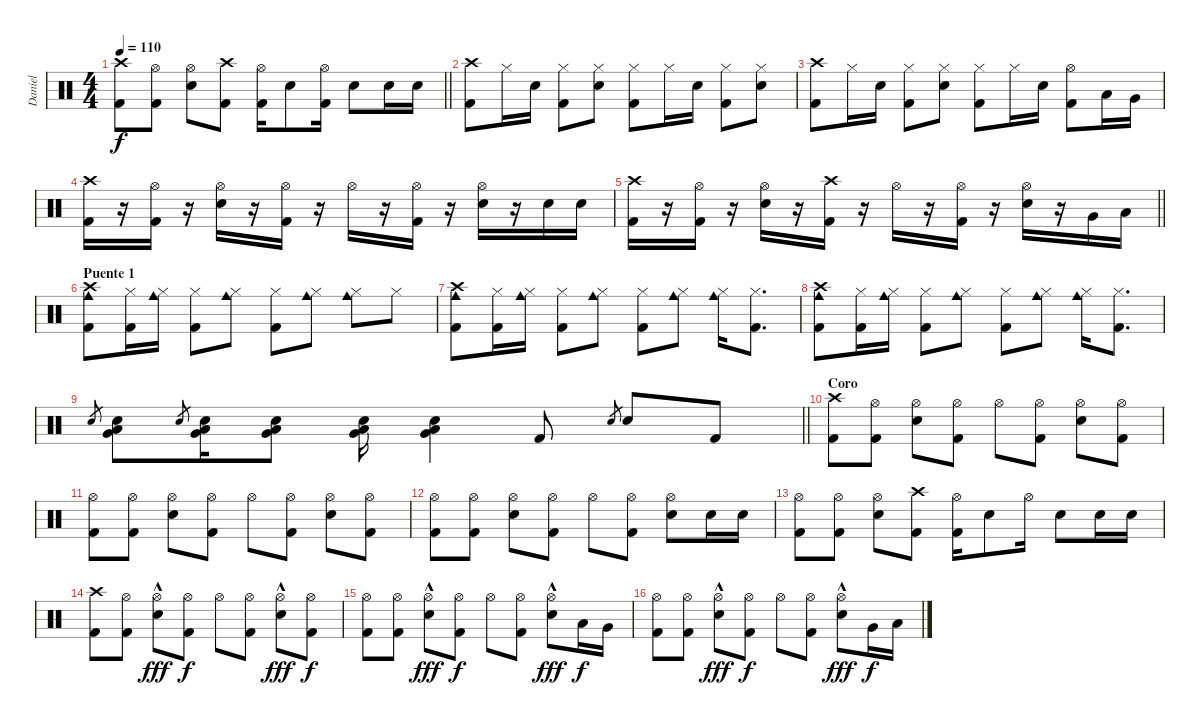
\track ("Daniel" "Daniel") {instrument percussion}
\staff {score}
\articulation defaults
\ts (4 4)
\tempo 110
\clef neutral
\barLineRight lightlight
\ks c
("Crash high (hit)" "Kick (hit) 2").8{dy f} ("Hi-Hat (open)" "Kick (hit) 2").8 ("Hi-Hat (open)" "Snare (hit) 2").8 ("Crash high (hit)" "Kick (hit) 2").8 ("Hi-Hat (open)" "Kick (hit) 2").16 "Snare (hit) 2".8 ("Hi-Hat (open)" "Kick (hit) 2").16 "Snare (hit) 2".8 "Snare (hit) 2".16 "Snare (hit) 2".16 |
("Crash high (hit)" "Kick (hit) 2").8 "Hi-Hat (closed)".16 "Snare (hit) 2".16 ("Hi-Hat (closed)" "Kick (hit) 2").8 ("Hi-Hat (closed)" "Snare (hit) 2").8 ("Hi-Hat (closed)" "Kick (hit) 2").8 "Hi-Hat (closed)".16 "Snare (hit) 2".16 ("Hi-Hat (closed)" "Kick (hit) 2").8 ("Hi-Hat (closed)" "Snare (hit) 2").8 |
("Crash high (hit)" "Kick (hit) 2").8 "Hi-Hat (closed)".16 "Snare (hit) 2".16 ("Hi-Hat (closed)" "Kick (hit) 2").8 ("Hi-Hat (closed)" "Snare (hit) 2").8 ("Hi-Hat (closed)" "Kick (hit) 2").8 "Hi-Hat (closed)".16 "Snare (hit) 2".16 ("Hi-Hat (open)" "Kick (hit) 2").8 "Low Tom (hit)".16 "Very Low Tom (hit)".16 |
("Crash high (hit)" "Kick (hit) 2").16 r.16 ("Hi-Hat (open)" "Kick (hit) 2").16 r.16 ("Hi-Hat (open)" "Snare (hit) 2").16 r.16 ("Hi-Hat (open)" "Kick (hit) 2").16 r.16 "Hi-Hat (open)".16 r.16 ("Hi-Hat (open)" "Kick (hit) 2").16 r.16 ("Hi-Hat (open)" "Snare (hit) 2").16 r.16 "Snare (hit) 2".16 "Snare (hit) 2".16 |
\barLineRight lightlight
("Crash high (hit)" "Kick (hit) 2").16 r.16 ("Hi-Hat (open)" "Kick (hit) 2").16 r.16 ("Hi-Hat (open)" "Snare (hit) 2").16 r.16 ("Crash high (hit)" "Kick (hit) 2").16 r.16 "Hi-Hat (open)".16 r.16 ("Hi-Hat (open)" "Kick (hit) 2").16 r.16 ("Hi-Hat (open)" "Snare (hit) 2").16 r.16 "Very Low Tom (hit)".16 "Low Floor Tom (hit)".16 |
\section ("" "Puente 1")
("Crash high (hit)" "Cowbell medium (hit)" "Kick (hit) 2").8 ("Hi-Hat (closed)" "Kick (hit) 2").16 ("Hi-Hat (closed)" "Cowbell medium (hit)").16 ("Hi-Hat (closed)" "Kick (hit) 2").8 ("Hi-Hat (closed)" "Cowbell medium (hit)").8 ("Hi-Hat (closed)" "Kick (hit) 2").8 ("Hi-Hat (closed)" "Cowbell medium (hit)").8 ("Hi-Hat (closed)" "Cowbell medium (hit)").8 "Hi-Hat (closed)".8 |
("Crash high (hit)" "Cowbell medium (hit)" "Kick (hit) 2").8 ("Hi-Hat (closed)" "Kick (hit) 2").16 ("Hi-Hat (closed)" "Cowbell medium (hit)").16 ("Hi-Hat (closed)" "Kick (hit) 2").8 ("Hi-Hat (closed)" "Cowbell medium (hit)").8 ("Hi-Hat (closed)" "Kick (hit) 2").8 ("Hi-Hat (closed)" "Cowbell medium (hit)").8 ("Hi-Hat (closed)" "Cowbell medium (hit)").16 ("Hi-Hat (closed)" "Kick (hit) 2").8{d} |
("Crash high (hit)" "Cowbell medium (hit)" "Kick (hit) 2").8 ("Hi-Hat (closed)" "Kick (hit) 2").16 ("Hi-Hat (closed)" "Cowbell medium (hit)").16 ("Hi-Hat (closed)" "Kick (hit) 2").8 ("Hi-Hat (closed)" "Cowbell medium (hit)").8 ("Hi-Hat (closed)" "Kick (hit) 2").8 ("Hi-Hat (closed)" "Cowbell medium (hit)").8 ("Hi-Hat (closed)" "Cowbell medium (hit)").16 ("Hi-Hat (closed)" "Kick (hit) 2").8{d} |
\barLineRight lightlight "Snare (hit) 2".8{gr}
("Snare (hit) 2" "Low Floor Tom (hit)" "Very Low Tom (hit)").8 "Snare (hit) 2".8{gr} ("Snare (hit) 2" "Low Floor Tom (hit)" "Very Low Tom (hit)").16 ("Snare (hit) 2" "Low Floor Tom (hit)" "Very Low Tom (hit)").8 ("Snare (hit) 2" "Low Floor Tom (hit)" "Very Low Tom (hit)").16 ("Snare (hit) 2" "Low Floor Tom (hit)" "Very Low Tom (hit)").4 "Kick (hit) 2".8 "Snare (hit) 2".8{gr} "Snare (hit) 2".8 "Kick (hit) 2".8 |
\section ("" "Coro")
("Crash high (hit)" "Kick (hit) 2").8 ("Hi-Hat (open)" "Kick (hit) 2").8 ("Hi-Hat (open)" "Snare (hit) 2").8 ("Hi-Hat (open)" "Kick (hit) 2").8 "Hi-Hat (open)".8 ("Hi-Hat (open)" "Kick (hit) 2").8 ("Hi-Hat (open)" "Snare (hit) 2").8 ("Hi-Hat (open)" "Kick (hit) 2").8 |
("Hi-Hat (open)" "Kick (hit) 2").8 ("Hi-Hat (open)" "Kick (hit) 2").8 ("Hi-Hat (open)" "Snare (hit) 2").8 ("Hi-Hat (open)" "Kick (hit) 2").8 "Hi-Hat (open)".8 ("Hi-Hat (open)" "Kick (hit) 2").8 ("Hi-Hat (open)" "Snare (hit) 2").8 ("Hi-Hat (open)" "Kick (hit) 2").8 |
("Hi-Hat (open)" "Kick (hit) 2").8 ("Hi-Hat (open)" "Kick (hit) 2").8 ("Hi-Hat (open)" "Snare (hit) 2").8 ("Hi-Hat (open)" "Kick (hit) 2").8 "Hi-Hat (open)".8 ("Hi-Hat (open)" "Kick (hit) 2").8 ("Hi-Hat (open)" "Snare (hit) 2").8 "Snare (hit) 2".16 "Snare (hit) 2".16 |
("Hi-Hat (open)" "Kick (hit) 2").8 ("Hi-Hat (open)" "Kick (hit) 2").8 ("Hi-Hat (open)" "Snare (hit) 2").8 ("Crash high (hit)" "Kick (hit) 2").8 ("Hi-Hat (open)" "Kick (hit) 2").16 "Snare (hit) 2".8 "Hi-Hat (open)".16 "Snare (hit) 2".8 "Snare (hit) 2".16 "Snare (hit) 2".16 |
("Crash high (hit)" "Kick (hit) 2").8 ("Hi-Hat (open)" "Kick (hit) 2").8 ("Hi-Hat (open)"{hac} "Snare (hit) 2"{hac}).8{dy fff} ("Hi-Hat (open)" "Kick (hit) 2").8{dy f} "Hi-Hat (open)".8 ("Hi-Hat (open)" "Kick (hit) 2").8 ("Hi-Hat (open)"{hac} "Snare (hit) 2"{hac}).8{dy fff} ("Hi-Hat (open)" "Kick (hit) 2").8{dy f} |
("Hi-Hat (open)" "Kick (hit) 2").8 ("Hi-Hat (open)" "Kick (hit) 2").8 ("Hi-Hat (open)"{hac} "Snare (hit) 2"{hac}).8{dy fff} ("Hi-Hat (open)" "Kick (hit) 2").8{dy f} "Hi-Hat (open)".8 ("Hi-Hat (open)" "Kick (hit) 2").8 ("Hi-Hat (open)"{hac} "Snare (hit) 2"{hac}).8{dy fff} "Low Tom (hit)".16{dy f} "Very Low Tom (hit)".16 |
("Hi-Hat (open)" "Kick (hit) 2").8 ("Hi-Hat (open)" "Kick (hit) 2").8 ("Hi-Hat (open)"{hac} "Snare (hit) 2"{hac}).8{dy fff} ("Hi-Hat (open)" "Kick (hit) 2").8{dy f} "Hi-Hat (open)".8 ("Hi-Hat (open)" "Kick (hit) 2").8 ("Hi-Hat (open)"{hac} "Snare (hit) 2"{hac}).8{dy fff} "Very Low Tom (hit)".16{dy f} "Low Floor Tom (hit)".16
